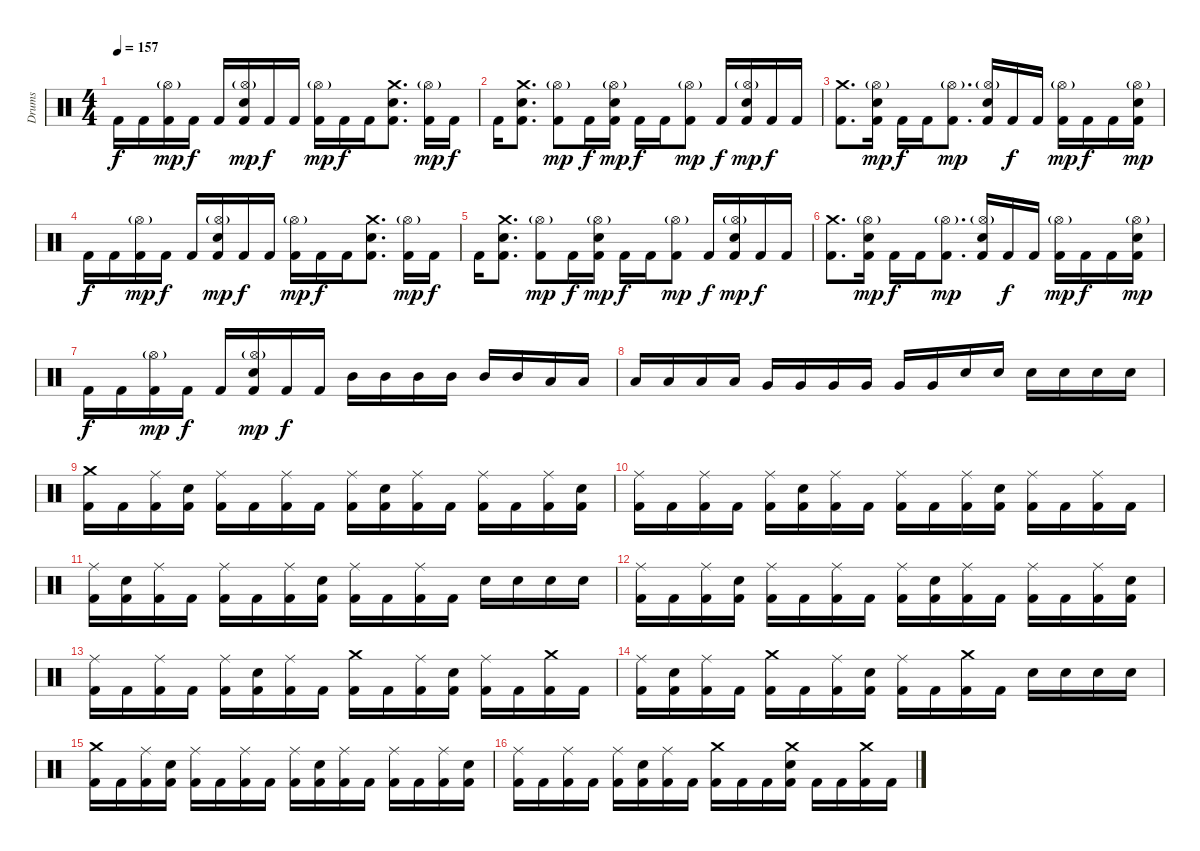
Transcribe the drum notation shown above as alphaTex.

\track ("Drums" "Drums") {instrument percussion}
\staff {score}
\articulation defaults
\ts (4 4)
\tempo 157
\clef neutral
\ks c "Kick (hit) 2".16{dy f} "Kick (hit) 2".16
("Hi-Hat (open)"{g} "Kick (hit) 2").16{dy mp} "Kick (hit) 2".16{dy f} "Kick (hit) 2".16 ("Snare (hit) 2" "Hi-Hat (open)"{g} "Kick (hit) 2").16{dy mp} "Kick (hit) 2".16{dy f} "Kick (hit) 2".16 ("Hi-Hat (open)"{g} "Kick (hit) 2").16{dy mp} "Kick (hit) 2".16{dy f} "Kick (hit) 2".16 ("Crash medium (hit)" "Snare (hit) 2" "Kick (hit) 2").8{d} ("Hi-Hat (open)"{g} "Kick (hit) 2").16{dy mp} "Kick (hit) 2".16{dy f} |
"Kick (hit) 2".16 ("Crash medium (hit)" "Snare (hit) 2" "Kick (hit) 2").8{d} ("Hi-Hat (open)"{g} "Kick (hit) 2").8{dy mp} "Kick (hit) 2".16{dy f} ("Snare (hit) 2" "Hi-Hat (open)"{g} "Kick (hit) 2").16{dy mp} "Kick (hit) 2".16{dy f} "Kick (hit) 2".16 ("Hi-Hat (open)"{g} "Kick (hit) 2").8{dy mp} "Kick (hit) 2".16{dy f} ("Snare (hit) 2" "Hi-Hat (open)"{g} "Kick (hit) 2").16{dy mp} "Kick (hit) 2".16{dy f} "Kick (hit) 2".16 |
("Crash medium (hit)" "Kick (hit) 2").8{d} ("Snare (hit) 2" "Hi-Hat (open)"{g} "Kick (hit) 2").16{dy mp} "Kick (hit) 2".16{dy f} "Kick (hit) 2".16 ("Hi-Hat (open)"{g} "Kick (hit) 2").8{d dy mp} ("Snare (hit) 2" "Hi-Hat (open)"{g} "Kick (hit) 2").16 "Kick (hit) 2".16{dy f} "Kick (hit) 2".16 ("Hi-Hat (open)"{g} "Kick (hit) 2").16{dy mp} "Kick (hit) 2".16{dy f} "Kick (hit) 2".16 ("Snare (hit) 2" "Hi-Hat (open)"{g} "Kick (hit) 2").16{dy mp} |
"Kick (hit) 2".16{dy f} "Kick (hit) 2".16 ("Hi-Hat (open)"{g} "Kick (hit) 2").16{dy mp} "Kick (hit) 2".16{dy f} "Kick (hit) 2".16 ("Snare (hit) 2" "Hi-Hat (open)"{g} "Kick (hit) 2").16{dy mp} "Kick (hit) 2".16{dy f} "Kick (hit) 2".16 ("Hi-Hat (open)"{g} "Kick (hit) 2").16{dy mp} "Kick (hit) 2".16{dy f} "Kick (hit) 2".16 ("Crash medium (hit)" "Snare (hit) 2" "Kick (hit) 2").8{d} ("Hi-Hat (open)"{g} "Kick (hit) 2").16{dy mp} "Kick (hit) 2".16{dy f} |
"Kick (hit) 2".16 ("Crash medium (hit)" "Snare (hit) 2" "Kick (hit) 2").8{d} ("Hi-Hat (open)"{g} "Kick (hit) 2").8{dy mp} "Kick (hit) 2".16{dy f} ("Snare (hit) 2" "Hi-Hat (open)"{g} "Kick (hit) 2").16{dy mp} "Kick (hit) 2".16{dy f} "Kick (hit) 2".16 ("Hi-Hat (open)"{g} "Kick (hit) 2").8{dy mp} "Kick (hit) 2".16{dy f} ("Snare (hit) 2" "Hi-Hat (open)"{g} "Kick (hit) 2").16{dy mp} "Kick (hit) 2".16{dy f} "Kick (hit) 2".16 |
("Crash medium (hit)" "Kick (hit) 2").8{d} ("Snare (hit) 2" "Hi-Hat (open)"{g} "Kick (hit) 2").16{dy mp} "Kick (hit) 2".16{dy f} "Kick (hit) 2".16 ("Hi-Hat (open)"{g} "Kick (hit) 2").8{d dy mp} ("Snare (hit) 2" "Hi-Hat (open)"{g} "Kick (hit) 2").16 "Kick (hit) 2".16{dy f} "Kick (hit) 2".16 ("Hi-Hat (open)"{g} "Kick (hit) 2").16{dy mp} "Kick (hit) 2".16{dy f} "Kick (hit) 2".16 ("Snare (hit) 2" "Hi-Hat (open)"{g} "Kick (hit) 2").16{dy mp} |
"Kick (hit) 2".16{dy f} "Kick (hit) 2".16 ("Hi-Hat (open)"{g} "Kick (hit) 2").16{dy mp} "Kick (hit) 2".16{dy f} "Kick (hit) 2".16 ("Snare (hit) 2" "Hi-Hat (open)"{g} "Kick (hit) 2").16{dy mp} "Kick (hit) 2".16{dy f} "Kick (hit) 2".16 "Mid Tom (hit)".16 "Mid Tom (hit)".16 "Mid Tom (hit)".16 "Mid Tom (hit)".16 "Mid Tom (hit)".16 "Mid Tom (hit)".16 "Low Tom (hit)".16 "Low Tom (hit)".16 |
"Low Tom (hit)".16 "Low Tom (hit)".16 "Low Tom (hit)".16 "Low Tom (hit)".16 "Very Low Tom (hit)".16 "Very Low Tom (hit)".16 "Very Low Tom (hit)".16 "Very Low Tom (hit)".16 "Very Low Tom (hit)".16 "Very Low Tom (hit)".16 "Snare (hit) 2".16 "Snare (hit) 2".16 "Snare (hit) 2".16 "Snare (hit) 2".16 "Snare (hit) 2".16 "Snare (hit) 2".16 |
("Crash medium (hit)" "Kick (hit) 2").16 "Kick (hit) 2".16 ("Ride (middle)" "Kick (hit) 2").16 ("Snare (hit) 2" "Kick (hit) 2").16 ("Ride (middle)" "Kick (hit) 2").16 "Kick (hit) 2".16 ("Ride (middle)" "Kick (hit) 2").16 "Kick (hit) 2".16 ("Ride (middle)" "Kick (hit) 2").16 ("Snare (hit) 2" "Kick (hit) 2").16 ("Ride (middle)" "Kick (hit) 2").16 "Kick (hit) 2".16 ("Ride (middle)" "Kick (hit) 2").16 "Kick (hit) 2".16 ("Ride (middle)" "Kick (hit) 2").16 ("Snare (hit) 2" "Kick (hit) 2").16 |
("Ride (middle)" "Kick (hit) 2").16 "Kick (hit) 2".16 ("Ride (middle)" "Kick (hit) 2").16 "Kick (hit) 2".16 ("Ride (middle)" "Kick (hit) 2").16 ("Snare (hit) 2" "Kick (hit) 2").16 ("Ride (middle)" "Kick (hit) 2").16 "Kick (hit) 2".16 ("Ride (middle)" "Kick (hit) 2").16 "Kick (hit) 2".16 ("Ride (middle)" "Kick (hit) 2").16 ("Snare (hit) 2" "Kick (hit) 2").16 ("Ride (middle)" "Kick (hit) 2").16 "Kick (hit) 2".16 ("Ride (middle)" "Kick (hit) 2").16 "Kick (hit) 2".16 |
("Ride (middle)" "Kick (hit) 2").16 ("Snare (hit) 2" "Kick (hit) 2").16 ("Ride (middle)" "Kick (hit) 2").16 "Kick (hit) 2".16 ("Ride (middle)" "Kick (hit) 2").16 "Kick (hit) 2".16 ("Ride (middle)" "Kick (hit) 2").16 ("Snare (hit) 2" "Kick (hit) 2").16 ("Ride (middle)" "Kick (hit) 2").16 "Kick (hit) 2".16 ("Ride (middle)" "Kick (hit) 2").16 "Kick (hit) 2".16 "Snare (hit) 2".16 "Snare (hit) 2".16 "Snare (hit) 2".16 "Snare (hit) 2".16 |
("Ride (middle)" "Kick (hit) 2").16 "Kick (hit) 2".16 ("Ride (middle)" "Kick (hit) 2").16 ("Snare (hit) 2" "Kick (hit) 2").16 ("Ride (middle)" "Kick (hit) 2").16 "Kick (hit) 2".16 ("Ride (middle)" "Kick (hit) 2").16 "Kick (hit) 2".16 ("Ride (middle)" "Kick (hit) 2").16 ("Snare (hit) 2" "Kick (hit) 2").16 ("Ride (middle)" "Kick (hit) 2").16 "Kick (hit) 2".16 ("Ride (middle)" "Kick (hit) 2").16 "Kick (hit) 2".16 ("Ride (middle)" "Kick (hit) 2").16 ("Snare (hit) 2" "Kick (hit) 2").16 |
("Ride (middle)" "Kick (hit) 2").16 "Kick (hit) 2".16 ("Ride (middle)" "Kick (hit) 2").16 "Kick (hit) 2".16 ("Ride (middle)" "Kick (hit) 2").16 ("Snare (hit) 2" "Kick (hit) 2").16 ("Ride (middle)" "Kick (hit) 2").16 "Kick (hit) 2".16 ("Crash medium (hit)" "Kick (hit) 2").16 "Kick (hit) 2".16 ("Ride (middle)" "Kick (hit) 2").16 ("Snare (hit) 2" "Kick (hit) 2").16 ("Ride (middle)" "Kick (hit) 2").16 "Kick (hit) 2".16 ("Crash medium (hit)" "Kick (hit) 2").16 "Kick (hit) 2".16 |
("Ride (middle)" "Kick (hit) 2").16 ("Snare (hit) 2" "Kick (hit) 2").16 ("Ride (middle)" "Kick (hit) 2").16 "Kick (hit) 2".16 ("Crash medium (hit)" "Kick (hit) 2").16 "Kick (hit) 2".16 ("Ride (middle)" "Kick (hit) 2").16 ("Snare (hit) 2" "Kick (hit) 2").16 ("Ride (middle)" "Kick (hit) 2").16 "Kick (hit) 2".16 ("Crash medium (hit)" "Kick (hit) 2").16 "Kick (hit) 2".16 "Snare (hit) 2".16 "Snare (hit) 2".16 "Snare (hit) 2".16 "Snare (hit) 2".16 |
("Crash medium (hit)" "Kick (hit) 2").16 "Kick (hit) 2".16 ("Ride (middle)" "Kick (hit) 2").16 ("Snare (hit) 2" "Kick (hit) 2").16 ("Ride (middle)" "Kick (hit) 2").16 "Kick (hit) 2".16 ("Ride (middle)" "Kick (hit) 2").16 "Kick (hit) 2".16 ("Ride (middle)" "Kick (hit) 2").16 ("Snare (hit) 2" "Kick (hit) 2").16 ("Ride (middle)" "Kick (hit) 2").16 "Kick (hit) 2".16 ("Ride (middle)" "Kick (hit) 2").16 "Kick (hit) 2".16 ("Ride (middle)" "Kick (hit) 2").16 ("Snare (hit) 2" "Kick (hit) 2").16 |
("Ride (middle)" "Kick (hit) 2").16 "Kick (hit) 2".16 ("Ride (middle)" "Kick (hit) 2").16 "Kick (hit) 2".16 ("Ride (middle)" "Kick (hit) 2").16 ("Snare (hit) 2" "Kick (hit) 2").16 ("Ride (middle)" "Kick (hit) 2").16 "Kick (hit) 2".16 ("Crash medium (hit)" "Kick (hit) 2").16 "Kick (hit) 2".16 "Kick (hit) 2".16 ("Crash medium (hit)" "Snare (hit) 2" "Kick (hit) 2").16 "Kick (hit) 2".16 "Kick (hit) 2".16 ("Crash medium (hit)" "Kick (hit) 2").16 "Kick (hit) 2".16
